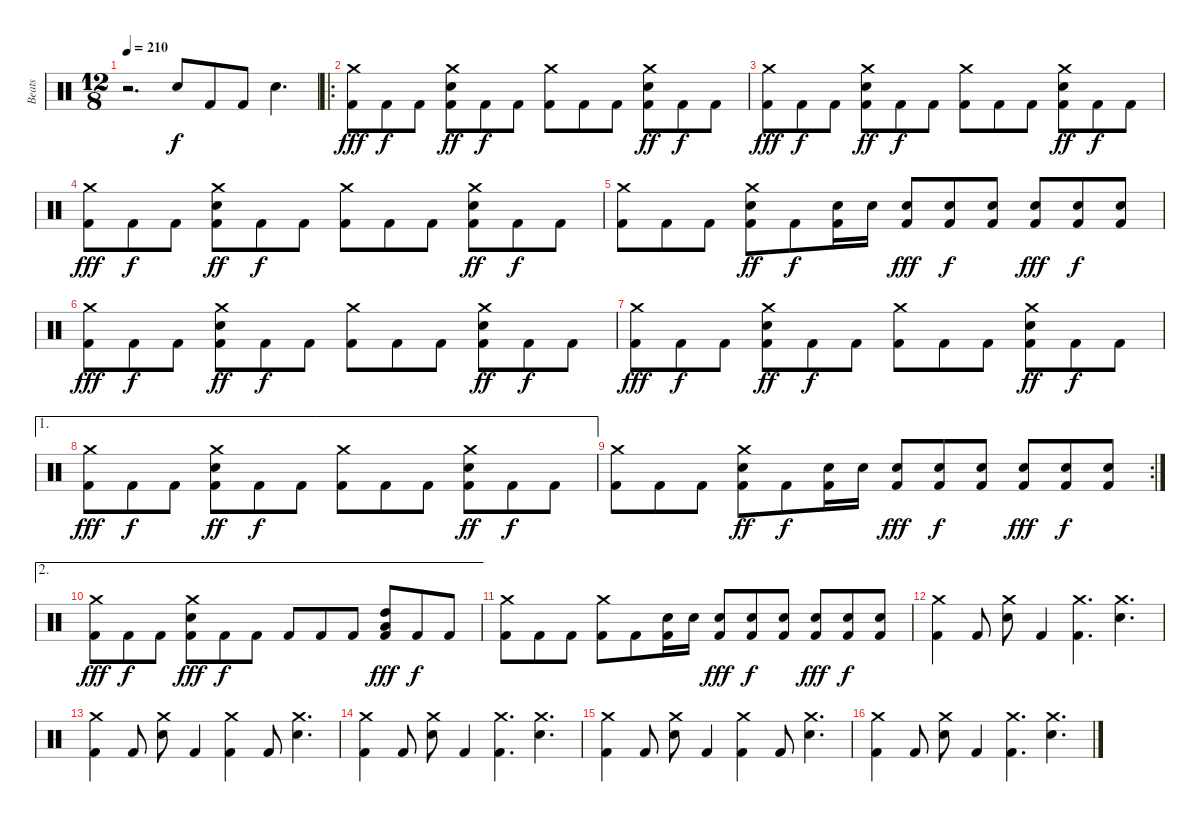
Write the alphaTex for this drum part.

\track ("Beats" "Beats") {instrument percussion}
\staff {score}
\articulation defaults
\ts (12 8)
\tempo 210
\clef neutral
\ks c
r.2{d dy f} "Snare (hit) 2".8 "Kick (hit) 2".8 "Kick (hit) 2".8 "Snare (hit) 2".4{d} |
\ro
("Crash medium (hit)" "Kick (hit) 2").8{dy fff} "Kick (hit) 2".8{dy f} "Kick (hit) 2".8 ("Crash medium (hit)" "Snare (hit) 2" "Kick (hit) 2").8{dy ff} "Kick (hit) 2".8{dy f} "Kick (hit) 2".8 ("Crash medium (hit)" "Kick (hit) 2").8 "Kick (hit) 2".8 "Kick (hit) 2".8 ("Crash medium (hit)" "Snare (hit) 2" "Kick (hit) 2").8{dy ff} "Kick (hit) 2".8{dy f} "Kick (hit) 2".8 |
("Crash medium (hit)" "Kick (hit) 2").8{dy fff} "Kick (hit) 2".8{dy f} "Kick (hit) 2".8 ("Crash medium (hit)" "Snare (hit) 2" "Kick (hit) 2").8{dy ff} "Kick (hit) 2".8{dy f} "Kick (hit) 2".8 ("Crash medium (hit)" "Kick (hit) 2").8 "Kick (hit) 2".8 "Kick (hit) 2".8 ("Crash medium (hit)" "Snare (hit) 2" "Kick (hit) 2").8{dy ff} "Kick (hit) 2".8{dy f} "Kick (hit) 2".8 |
("Crash medium (hit)" "Kick (hit) 2").8{dy fff} "Kick (hit) 2".8{dy f} "Kick (hit) 2".8 ("Crash medium (hit)" "Snare (hit) 2" "Kick (hit) 2").8{dy ff} "Kick (hit) 2".8{dy f} "Kick (hit) 2".8 ("Crash medium (hit)" "Kick (hit) 2").8 "Kick (hit) 2".8 "Kick (hit) 2".8 ("Crash medium (hit)" "Snare (hit) 2" "Kick (hit) 2").8{dy ff} "Kick (hit) 2".8{dy f} "Kick (hit) 2".8 |
("Crash medium (hit)" "Kick (hit) 2").8 "Kick (hit) 2".8 "Kick (hit) 2".8 ("Crash medium (hit)" "Snare (hit) 2" "Kick (hit) 2").8{dy ff} "Kick (hit) 2".8{dy f} ("Snare (hit) 2" "Kick (hit) 2").16 "Snare (hit) 2".16 ("Snare (hit) 2" "Kick (hit) 2").8{dy fff} ("Snare (hit) 2" "Kick (hit) 2").8{dy f} ("Snare (hit) 2" "Kick (hit) 2").8 ("Snare (hit) 2" "Kick (hit) 2").8{dy fff} ("Snare (hit) 2" "Kick (hit) 2").8{dy f} ("Snare (hit) 2" "Kick (hit) 2").8 |
("Crash medium (hit)" "Kick (hit) 2").8{dy fff} "Kick (hit) 2".8{dy f} "Kick (hit) 2".8 ("Crash medium (hit)" "Snare (hit) 2" "Kick (hit) 2").8{dy ff} "Kick (hit) 2".8{dy f} "Kick (hit) 2".8 ("Crash medium (hit)" "Kick (hit) 2").8 "Kick (hit) 2".8 "Kick (hit) 2".8 ("Crash medium (hit)" "Snare (hit) 2" "Kick (hit) 2").8{dy ff} "Kick (hit) 2".8{dy f} "Kick (hit) 2".8 |
("Crash medium (hit)" "Kick (hit) 2").8{dy fff} "Kick (hit) 2".8{dy f} "Kick (hit) 2".8 ("Crash medium (hit)" "Snare (hit) 2" "Kick (hit) 2").8{dy ff} "Kick (hit) 2".8{dy f} "Kick (hit) 2".8 ("Crash medium (hit)" "Kick (hit) 2").8 "Kick (hit) 2".8 "Kick (hit) 2".8 ("Crash medium (hit)" "Snare (hit) 2" "Kick (hit) 2").8{dy ff} "Kick (hit) 2".8{dy f} "Kick (hit) 2".8 |
\ae 1
("Crash medium (hit)" "Kick (hit) 2").8{dy fff} "Kick (hit) 2".8{dy f} "Kick (hit) 2".8 ("Crash medium (hit)" "Snare (hit) 2" "Kick (hit) 2").8{dy ff} "Kick (hit) 2".8{dy f} "Kick (hit) 2".8 ("Crash medium (hit)" "Kick (hit) 2").8 "Kick (hit) 2".8 "Kick (hit) 2".8 ("Crash medium (hit)" "Snare (hit) 2" "Kick (hit) 2").8{dy ff} "Kick (hit) 2".8{dy f} "Kick (hit) 2".8 |
\rc 2
("Crash medium (hit)" "Kick (hit) 2").8 "Kick (hit) 2".8 "Kick (hit) 2".8 ("Crash medium (hit)" "Snare (hit) 2" "Kick (hit) 2").8{dy ff} "Kick (hit) 2".8{dy f} ("Snare (hit) 2" "Kick (hit) 2").16 "Snare (hit) 2".16 ("Snare (hit) 2" "Kick (hit) 2").8{dy fff} ("Snare (hit) 2" "Kick (hit) 2").8{dy f} ("Snare (hit) 2" "Kick (hit) 2").8 ("Snare (hit) 2" "Kick (hit) 2").8{dy fff} ("Snare (hit) 2" "Kick (hit) 2").8{dy f} ("Snare (hit) 2" "Kick (hit) 2").8 |
\ae 2
("Crash medium (hit)" "Kick (hit) 2").8{dy fff} "Kick (hit) 2".8{dy f} "Kick (hit) 2".8 ("Crash medium (hit)" "Snare (hit) 2" "Kick (hit) 2").8{dy fff} "Kick (hit) 2".8{dy f} "Kick (hit) 2".8 "Kick (hit) 2".8 "Kick (hit) 2".8 "Kick (hit) 2".8 ("High Tom (hit)" "Low Tom (hit)" "Kick (hit) 2").8{dy fff} "Kick (hit) 2".8{dy f} "Kick (hit) 2".8 |
("Crash medium (hit)" "Kick (hit) 2").8 "Kick (hit) 2".8 "Kick (hit) 2".8 ("Crash medium (hit)" "Kick (hit) 2").8 "Kick (hit) 2".8 ("Snare (hit) 2" "Kick (hit) 2").16 "Snare (hit) 2".16 ("Snare (hit) 2" "Kick (hit) 2").8{dy fff} ("Snare (hit) 2" "Kick (hit) 2").8{dy f} ("Snare (hit) 2" "Kick (hit) 2").8 ("Snare (hit) 2" "Kick (hit) 2").8{dy fff} ("Snare (hit) 2" "Kick (hit) 2").8{dy f} ("Snare (hit) 2" "Kick (hit) 2").8 |
("Crash medium (hit)" "Kick (hit) 2").4 "Kick (hit) 2".8 ("Crash medium (hit)" "Snare (hit) 2").8 "Kick (hit) 2".4 ("Crash medium (hit)" "Kick (hit) 2").4{d} ("Crash medium (hit)" "Snare (hit) 2").4{d} |
("Crash medium (hit)" "Kick (hit) 2").4 "Kick (hit) 2".8 ("Crash medium (hit)" "Snare (hit) 2").8 "Kick (hit) 2".4 ("Crash medium (hit)" "Kick (hit) 2").4 "Kick (hit) 2".8 ("Crash medium (hit)" "Snare (hit) 2").4{d} |
("Crash medium (hit)" "Kick (hit) 2").4 "Kick (hit) 2".8 ("Crash medium (hit)" "Snare (hit) 2").8 "Kick (hit) 2".4 ("Crash medium (hit)" "Kick (hit) 2").4{d} ("Crash medium (hit)" "Snare (hit) 2").4{d} |
("Crash medium (hit)" "Kick (hit) 2").4 "Kick (hit) 2".8 ("Crash medium (hit)" "Snare (hit) 2").8 "Kick (hit) 2".4 ("Crash medium (hit)" "Kick (hit) 2").4 "Kick (hit) 2".8 ("Crash medium (hit)" "Snare (hit) 2").4{d} |
("Crash medium (hit)" "Kick (hit) 2").4 "Kick (hit) 2".8 ("Crash medium (hit)" "Snare (hit) 2").8 "Kick (hit) 2".4 ("Crash medium (hit)" "Kick (hit) 2").4{d} ("Crash medium (hit)" "Snare (hit) 2").4{d}
